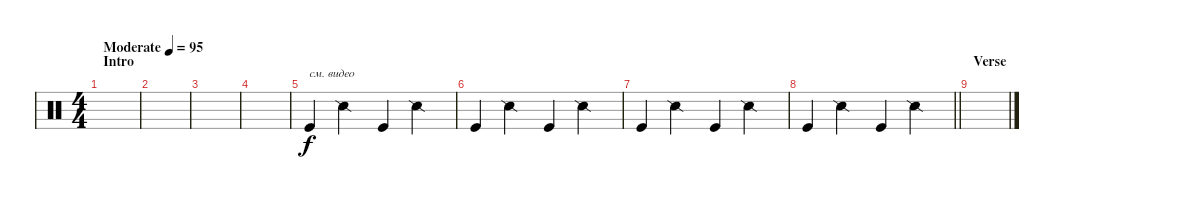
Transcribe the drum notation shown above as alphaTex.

\track "" {instrument percussion}
\staff {score}
\articulation defaults
\ts (4 4)
\section ("" "Intro")
\tempo (95 "Moderate")
\clef neutral
\ks c
|
|
|
|
"Kick (hit)".4{txt "см. видео"} "Snare (side stick) 2".4 "Kick (hit)".4 "Snare (side stick) 2".4 |
"Kick (hit)".4 "Snare (side stick) 2".4 "Kick (hit)".4 "Snare (side stick) 2".4 |
"Kick (hit)".4 "Snare (side stick) 2".4 "Kick (hit)".4 "Snare (side stick) 2".4 |
\barLineRight lightlight "Kick (hit)".4 "Snare (side stick) 2".4 "Kick (hit)".4 "Snare (side stick) 2".4
|
\section ("" "Verse")
